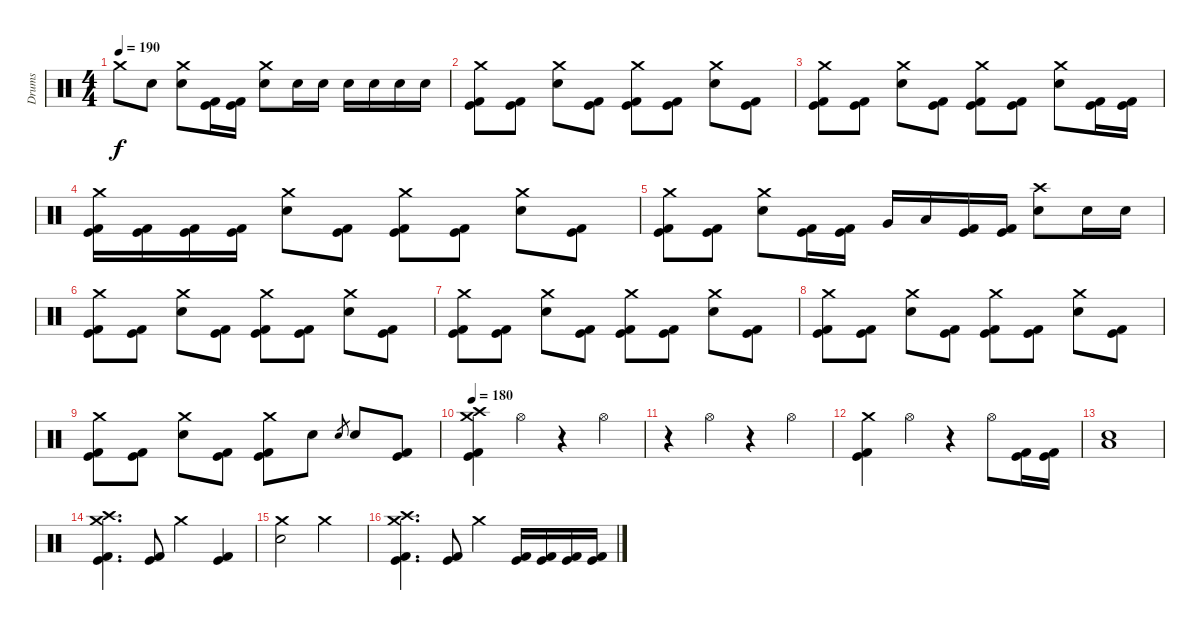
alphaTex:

\track ("Drums" "Drums") {instrument percussion}
\staff {score}
\articulation defaults
\ts (4 4)
\tempo 190
\clef neutral
\ks c "Crash medium (hit)".8{dy f} "Electric Snare (hit)".8
("Crash medium (hit)" "Electric Snare (hit)").8 ("Kick (hit)" "Kick (hit) 2").16 ("Kick (hit)" "Kick (hit) 2").16 ("Crash medium (hit)" "Electric Snare (hit)").8 "Electric Snare (hit)".16 "Electric Snare (hit)".16 "Electric Snare (hit)".16 "Electric Snare (hit)".16 "Electric Snare (hit)".16 "Electric Snare (hit)".16 |
("Crash medium (hit)" "Kick (hit)" "Kick (hit) 2").8 ("Kick (hit)" "Kick (hit) 2").8 ("Crash medium (hit)" "Electric Snare (hit)").8 ("Kick (hit)" "Kick (hit) 2").8 ("Crash medium (hit)" "Kick (hit)" "Kick (hit) 2").8 ("Kick (hit)" "Kick (hit) 2").8 ("Crash medium (hit)" "Electric Snare (hit)").8 ("Kick (hit)" "Kick (hit) 2").8 |
("Crash medium (hit)" "Kick (hit)" "Kick (hit) 2").8 ("Kick (hit)" "Kick (hit) 2").8 ("Crash medium (hit)" "Electric Snare (hit)").8 ("Kick (hit)" "Kick (hit) 2").8 ("Crash medium (hit)" "Kick (hit)" "Kick (hit) 2").8 ("Kick (hit)" "Kick (hit) 2").8 ("Crash medium (hit)" "Electric Snare (hit)").8 ("Kick (hit)" "Kick (hit) 2").16 ("Kick (hit)" "Kick (hit) 2").16 |
("Crash medium (hit)" "Kick (hit)" "Kick (hit) 2").16 ("Kick (hit)" "Kick (hit) 2").16 ("Kick (hit)" "Kick (hit) 2").16 ("Kick (hit)" "Kick (hit) 2").16 ("Crash medium (hit)" "Electric Snare (hit)").8 ("Kick (hit)" "Kick (hit) 2").8 ("Crash medium (hit)" "Kick (hit)" "Kick (hit) 2").8 ("Kick (hit)" "Kick (hit) 2").8 ("Crash medium (hit)" "Electric Snare (hit)").8 ("Kick (hit)" "Kick (hit) 2").8 |
("Crash medium (hit)" "Kick (hit)" "Kick (hit) 2").8 ("Kick (hit)" "Kick (hit) 2").8 ("Crash medium (hit)" "Electric Snare (hit)").8 ("Kick (hit)" "Kick (hit) 2").16 ("Kick (hit)" "Kick (hit) 2").16 "Very Low Tom (hit)".16 "Low Floor Tom (hit)".16 ("Kick (hit)" "Kick (hit) 2").16 ("Kick (hit)" "Kick (hit) 2").16 ("Crash high (hit)" "Electric Snare (hit)").8 "Electric Snare (hit)".16 "Electric Snare (hit)".16 |
("Crash medium (hit)" "Kick (hit)" "Kick (hit) 2").8 ("Kick (hit)" "Kick (hit) 2").8 ("Crash medium (hit)" "Electric Snare (hit)").8 ("Kick (hit)" "Kick (hit) 2").8 ("Crash medium (hit)" "Kick (hit)" "Kick (hit) 2").8 ("Kick (hit)" "Kick (hit) 2").8 ("Crash medium (hit)" "Electric Snare (hit)").8 ("Kick (hit)" "Kick (hit) 2").8 |
("Crash medium (hit)" "Kick (hit)" "Kick (hit) 2").8 ("Kick (hit)" "Kick (hit) 2").8 ("Crash medium (hit)" "Electric Snare (hit)").8 ("Kick (hit)" "Kick (hit) 2").8 ("Crash medium (hit)" "Kick (hit)" "Kick (hit) 2").8 ("Kick (hit)" "Kick (hit) 2").8 ("Crash medium (hit)" "Electric Snare (hit)").8 ("Kick (hit)" "Kick (hit) 2").8 |
("Crash medium (hit)" "Kick (hit)" "Kick (hit) 2").8 ("Kick (hit)" "Kick (hit) 2").8 ("Crash medium (hit)" "Electric Snare (hit)").8 ("Kick (hit)" "Kick (hit) 2").8 ("Crash medium (hit)" "Kick (hit)" "Kick (hit) 2").8 ("Kick (hit)" "Kick (hit) 2").8 ("Crash medium (hit)" "Electric Snare (hit)").8 ("Kick (hit)" "Kick (hit) 2").8 |
("Crash medium (hit)" "Kick (hit)" "Kick (hit) 2").8 ("Kick (hit)" "Kick (hit) 2").8 ("Crash medium (hit)" "Electric Snare (hit)").8 ("Kick (hit)" "Kick (hit) 2").8 ("Crash medium (hit)" "Kick (hit)" "Kick (hit) 2").8 "Electric Snare (hit)".8 "Electric Snare (hit)".8{gr} "Electric Snare (hit)".8 ("Kick (hit)" "Kick (hit) 2").8 |
\tempo 180
("Crash high (hit)" "Crash medium (hit)" "Kick (hit)" "Kick (hit) 2").4 "Hi-Hat (open)".4 r.4 "Hi-Hat (open)".4 |
r.4 "Hi-Hat (open)".4 r.4 "Hi-Hat (open)".4 |
("Crash medium (hit)" "Kick (hit)" "Kick (hit) 2").4 "Hi-Hat (open)".4 r.4 "Hi-Hat (open)".8 ("Kick (hit)" "Kick (hit) 2").16 ("Kick (hit)" "Kick (hit) 2").16 |
("Electric Snare (hit)" "Low Floor Tom (hit)").1 |
("Crash high (hit)" "Crash medium (hit)" "Kick (hit)" "Kick (hit) 2").4{d} ("Kick (hit)" "Kick (hit) 2").8 "Crash medium (hit)".4 ("Kick (hit)" "Kick (hit) 2").4 |
("Crash medium (hit)" "Electric Snare (hit)").2 "Crash medium (hit)".2 |
("Crash high (hit)" "Crash medium (hit)" "Kick (hit)" "Kick (hit) 2").4{d} ("Kick (hit)" "Kick (hit) 2").8 "Crash medium (hit)".4 ("Kick (hit)" "Kick (hit) 2").16 ("Kick (hit)" "Kick (hit) 2").16 ("Kick (hit)" "Kick (hit) 2").16 ("Kick (hit)" "Kick (hit) 2").16
